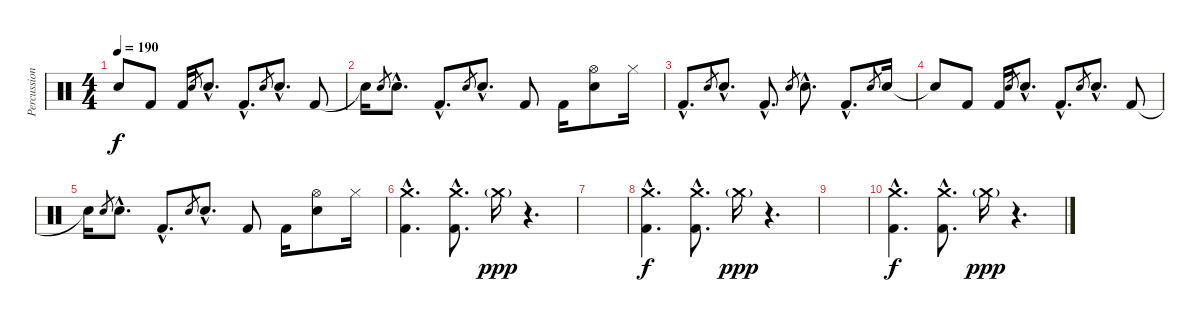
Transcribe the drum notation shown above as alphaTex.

\track ("Percussion" "Percussion") {instrument percussion}
\staff {score}
\articulation defaults
\ts (4 4)
\tempo 190
\clef neutral
\ks c "Snare (hit)"{t}.8{dy f} "Kick (hit) 2".8 "Kick (hit) 2".16 "Snare (hit) 2".8{gr} "Snare (hit) 2"{hac}.8{d} "Kick (hit) 2"{hac}.8{d} "Snare (hit) 2".8{gr} "Snare (hit) 2"{hac}.8{d} "Kick (hit) 2".8
|
"Snare (hit)"{t}.16 "Snare (hit) 2".8{gr} "Snare (hit) 2"{hac}.8{d} "Kick (hit) 2"{hac}.8{d} "Snare (hit) 2".8{gr} "Snare (hit) 2"{hac}.8{d} "Kick (hit) 2".8 "Kick (hit) 2".16 ("Hi-Hat (open)" "Snare (hit) 2").8 "Hi-Hat (closed)".16 |
"Kick (hit) 2"{hac}.8{d} "Snare (hit) 2".8{gr} "Snare (hit) 2"{hac}.8{d} "Kick (hit) 2"{hac}.8{d} "Snare (hit) 2".8{gr} "Snare (hit) 2"{hac}.8{d} "Kick (hit) 2"{hac}.8{d} "Snare (hit) 2".8{gr} "Snare (hit) 2".16 |
"Snare (hit)"{t}.8 "Kick (hit) 2".8 "Kick (hit) 2".16 "Snare (hit) 2".8{gr} "Snare (hit) 2"{hac}.8{d} "Kick (hit) 2"{hac}.8{d} "Snare (hit) 2".8{gr} "Snare (hit) 2"{hac}.8{d} "Kick (hit) 2".8 |
"Snare (hit)"{t}.16 "Snare (hit) 2".8{gr} "Snare (hit) 2"{hac}.8{d} "Kick (hit) 2"{hac}.8{d} "Snare (hit) 2".8{gr} "Snare (hit) 2"{hac}.8{d} "Kick (hit) 2".8 "Kick (hit) 2".16 ("Hi-Hat (open)" "Snare (hit) 2").8 "Hi-Hat (closed)".16 |
("Crash medium (hit)"{hac} "Kick (hit) 2"{hac}).4{d} ("Crash medium (hit)"{hac} "Kick (hit) 2"{hac}).8{d} "Crash medium (hit)"{g}.16{dy ppp} r.4{d} |
|
("Crash medium (hit)"{hac} "Kick (hit) 2"{hac}).4{d dy f} ("Crash medium (hit)"{hac} "Kick (hit) 2"{hac}).8{d} "Crash medium (hit)"{g}.16{dy ppp} r.4{d} |
|
("Crash medium (hit)"{hac} "Kick (hit) 2"{hac}).4{d dy f} ("Crash medium (hit)"{hac} "Kick (hit) 2"{hac}).8{d} "Crash medium (hit)"{g}.16{dy ppp} r.4{d}
